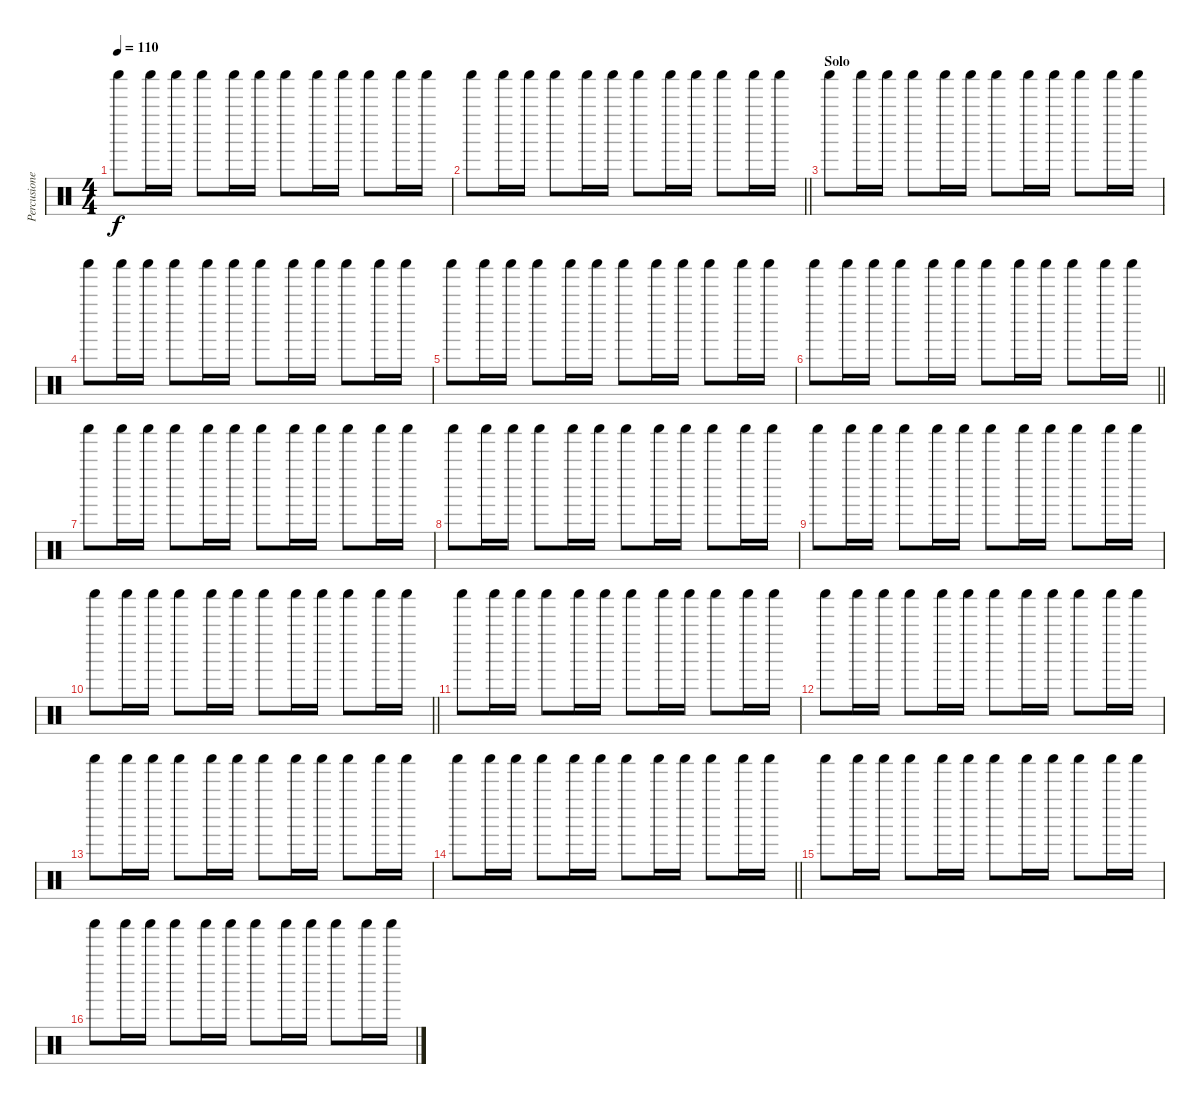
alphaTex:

\track ("Percusiones" "Percusione") {instrument percussion}
\staff {score}
\articulation defaults
\ts (4 4)
\tempo 110
\clef neutral
\ks c "Shaker (hit)".8{dy f} "Shaker (hit)".16 "Shaker (hit)".16 "Shaker (hit)".8 "Shaker (hit)".16 "Shaker (hit)".16 "Shaker (hit)".8 "Shaker (hit)".16 "Shaker (hit)".16 "Shaker (hit)".8 "Shaker (hit)".16 "Shaker (hit)".16
|
\barLineRight lightlight "Shaker (hit)".8 "Shaker (hit)".16 "Shaker (hit)".16 "Shaker (hit)".8 "Shaker (hit)".16 "Shaker (hit)".16 "Shaker (hit)".8 "Shaker (hit)".16 "Shaker (hit)".16 "Shaker (hit)".8 "Shaker (hit)".16 "Shaker (hit)".16
|
\section ("" "Solo")
"Shaker (hit)".8 "Shaker (hit)".16 "Shaker (hit)".16 "Shaker (hit)".8 "Shaker (hit)".16 "Shaker (hit)".16 "Shaker (hit)".8 "Shaker (hit)".16 "Shaker (hit)".16 "Shaker (hit)".8 "Shaker (hit)".16 "Shaker (hit)".16 |
"Shaker (hit)".8 "Shaker (hit)".16 "Shaker (hit)".16 "Shaker (hit)".8 "Shaker (hit)".16 "Shaker (hit)".16 "Shaker (hit)".8 "Shaker (hit)".16 "Shaker (hit)".16 "Shaker (hit)".8 "Shaker (hit)".16 "Shaker (hit)".16 |
"Shaker (hit)".8 "Shaker (hit)".16 "Shaker (hit)".16 "Shaker (hit)".8 "Shaker (hit)".16 "Shaker (hit)".16 "Shaker (hit)".8 "Shaker (hit)".16 "Shaker (hit)".16 "Shaker (hit)".8 "Shaker (hit)".16 "Shaker (hit)".16 |
\barLineRight lightlight "Shaker (hit)".8 "Shaker (hit)".16 "Shaker (hit)".16 "Shaker (hit)".8 "Shaker (hit)".16 "Shaker (hit)".16 "Shaker (hit)".8 "Shaker (hit)".16 "Shaker (hit)".16 "Shaker (hit)".8 "Shaker (hit)".16 "Shaker (hit)".16
|
"Shaker (hit)".8 "Shaker (hit)".16 "Shaker (hit)".16 "Shaker (hit)".8 "Shaker (hit)".16 "Shaker (hit)".16 "Shaker (hit)".8 "Shaker (hit)".16 "Shaker (hit)".16 "Shaker (hit)".8 "Shaker (hit)".16 "Shaker (hit)".16 |
"Shaker (hit)".8 "Shaker (hit)".16 "Shaker (hit)".16 "Shaker (hit)".8 "Shaker (hit)".16 "Shaker (hit)".16 "Shaker (hit)".8 "Shaker (hit)".16 "Shaker (hit)".16 "Shaker (hit)".8 "Shaker (hit)".16 "Shaker (hit)".16 |
"Shaker (hit)".8 "Shaker (hit)".16 "Shaker (hit)".16 "Shaker (hit)".8 "Shaker (hit)".16 "Shaker (hit)".16 "Shaker (hit)".8 "Shaker (hit)".16 "Shaker (hit)".16 "Shaker (hit)".8 "Shaker (hit)".16 "Shaker (hit)".16 |
\barLineRight lightlight "Shaker (hit)".8 "Shaker (hit)".16 "Shaker (hit)".16 "Shaker (hit)".8 "Shaker (hit)".16 "Shaker (hit)".16 "Shaker (hit)".8 "Shaker (hit)".16 "Shaker (hit)".16 "Shaker (hit)".8 "Shaker (hit)".16 "Shaker (hit)".16
|
"Shaker (hit)".8 "Shaker (hit)".16 "Shaker (hit)".16 "Shaker (hit)".8 "Shaker (hit)".16 "Shaker (hit)".16 "Shaker (hit)".8 "Shaker (hit)".16 "Shaker (hit)".16 "Shaker (hit)".8 "Shaker (hit)".16 "Shaker (hit)".16 |
"Shaker (hit)".8 "Shaker (hit)".16 "Shaker (hit)".16 "Shaker (hit)".8 "Shaker (hit)".16 "Shaker (hit)".16 "Shaker (hit)".8 "Shaker (hit)".16 "Shaker (hit)".16 "Shaker (hit)".8 "Shaker (hit)".16 "Shaker (hit)".16 |
"Shaker (hit)".8 "Shaker (hit)".16 "Shaker (hit)".16 "Shaker (hit)".8 "Shaker (hit)".16 "Shaker (hit)".16 "Shaker (hit)".8 "Shaker (hit)".16 "Shaker (hit)".16 "Shaker (hit)".8 "Shaker (hit)".16 "Shaker (hit)".16 |
\barLineRight lightlight "Shaker (hit)".8 "Shaker (hit)".16 "Shaker (hit)".16 "Shaker (hit)".8 "Shaker (hit)".16 "Shaker (hit)".16 "Shaker (hit)".8 "Shaker (hit)".16 "Shaker (hit)".16 "Shaker (hit)".8 "Shaker (hit)".16 "Shaker (hit)".16
|
"Shaker (hit)".8 "Shaker (hit)".16 "Shaker (hit)".16 "Shaker (hit)".8 "Shaker (hit)".16 "Shaker (hit)".16 "Shaker (hit)".8 "Shaker (hit)".16 "Shaker (hit)".16 "Shaker (hit)".8 "Shaker (hit)".16 "Shaker (hit)".16 |
"Shaker (hit)".8 "Shaker (hit)".16 "Shaker (hit)".16 "Shaker (hit)".8 "Shaker (hit)".16 "Shaker (hit)".16 "Shaker (hit)".8 "Shaker (hit)".16 "Shaker (hit)".16 "Shaker (hit)".8 "Shaker (hit)".16 "Shaker (hit)".16
